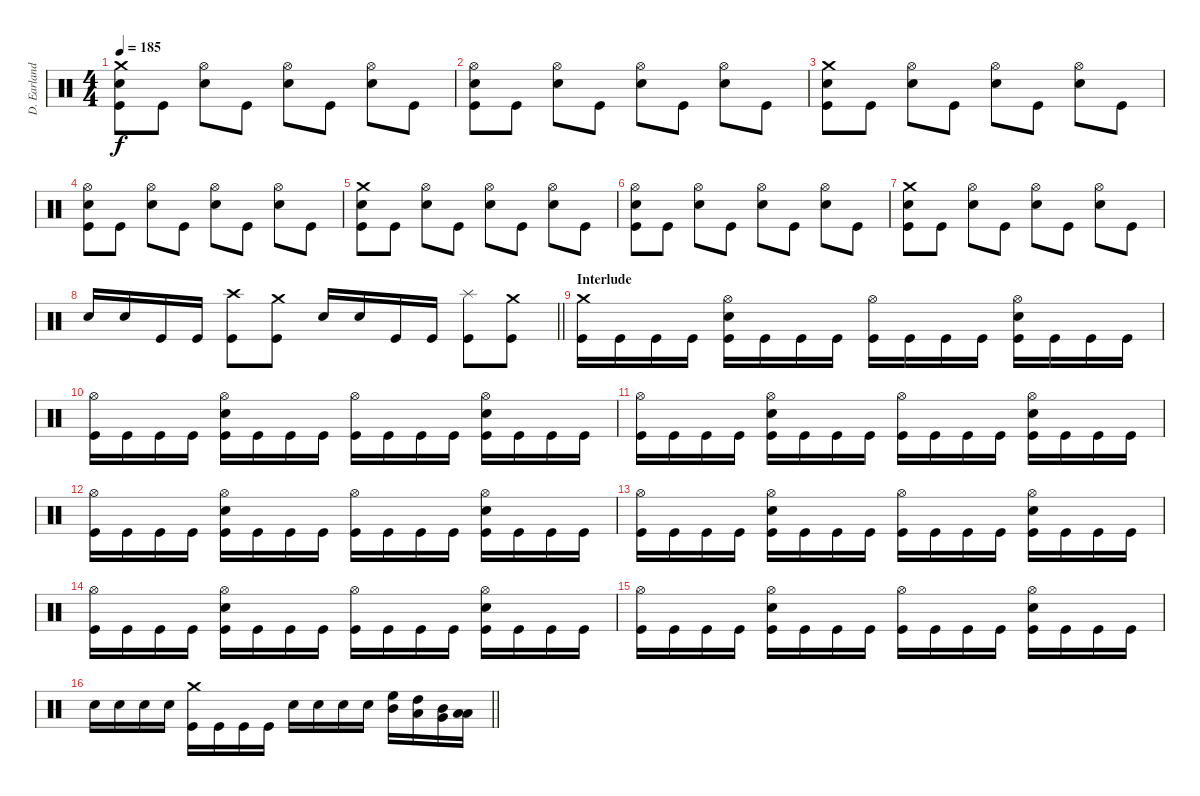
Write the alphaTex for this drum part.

\track ("D. Earlanddson" "D. Earland") {instrument percussion}
\staff {score}
\articulation defaults
\ts (4 4)
\tempo 185
\clef neutral
\ks c
("Crash medium (hit)" "Electric Snare (hit)" "Kick (hit)").8{dy f} "Kick (hit)".8 ("Hi-Hat (open)" "Electric Snare (hit)").8 "Kick (hit)".8 ("Hi-Hat (open)" "Electric Snare (hit)").8 "Kick (hit)".8 ("Hi-Hat (open)" "Electric Snare (hit)").8 "Kick (hit)".8 |
("Hi-Hat (open)" "Electric Snare (hit)" "Kick (hit)").8 "Kick (hit)".8 ("Hi-Hat (open)" "Electric Snare (hit)").8 "Kick (hit)".8 ("Hi-Hat (open)" "Electric Snare (hit)").8 "Kick (hit)".8 ("Hi-Hat (open)" "Electric Snare (hit)").8 "Kick (hit)".8 |
("Crash medium (hit)" "Electric Snare (hit)" "Kick (hit)").8 "Kick (hit)".8 ("Hi-Hat (open)" "Electric Snare (hit)").8 "Kick (hit)".8 ("Hi-Hat (open)" "Electric Snare (hit)").8 "Kick (hit)".8 ("Hi-Hat (open)" "Electric Snare (hit)").8 "Kick (hit)".8 |
("Hi-Hat (open)" "Electric Snare (hit)" "Kick (hit)").8 "Kick (hit)".8 ("Hi-Hat (open)" "Electric Snare (hit)").8 "Kick (hit)".8 ("Hi-Hat (open)" "Electric Snare (hit)").8 "Kick (hit)".8 ("Hi-Hat (open)" "Electric Snare (hit)").8 "Kick (hit)".8 |
("Crash medium (hit)" "Electric Snare (hit)" "Kick (hit)").8 "Kick (hit)".8 ("Hi-Hat (open)" "Electric Snare (hit)").8 "Kick (hit)".8 ("Hi-Hat (open)" "Electric Snare (hit)").8 "Kick (hit)".8 ("Hi-Hat (open)" "Electric Snare (hit)").8 "Kick (hit)".8 |
("Hi-Hat (open)" "Electric Snare (hit)" "Kick (hit)").8 "Kick (hit)".8 ("Hi-Hat (open)" "Electric Snare (hit)").8 "Kick (hit)".8 ("Hi-Hat (open)" "Electric Snare (hit)").8 "Kick (hit)".8 ("Hi-Hat (open)" "Electric Snare (hit)").8 "Kick (hit)".8 |
("Crash medium (hit)" "Electric Snare (hit)" "Kick (hit)").8 "Kick (hit)".8 ("Hi-Hat (open)" "Electric Snare (hit)").8 "Kick (hit)".8 ("Hi-Hat (open)" "Electric Snare (hit)").8 "Kick (hit)".8 ("Hi-Hat (open)" "Electric Snare (hit)").8 "Kick (hit)".8 |
\barLineRight lightlight "Electric Snare (hit)".16 "Electric Snare (hit)".16 "Kick (hit)".16 "Kick (hit)".16
("Crash high (hit)" "Kick (hit)").8 ("Crash medium (hit)" "Kick (hit)").8 "Electric Snare (hit)".16 "Electric Snare (hit)".16 "Kick (hit)".16 "Kick (hit)".16 ("Splash (hit)" "Kick (hit)").8 ("Crash medium (hit)" "Kick (hit)").8 |
\section ("" "Interlude")
("Crash medium (hit)" "Kick (hit)").16 "Kick (hit)".16 "Kick (hit)".16 "Kick (hit)".16 ("Hi-Hat (open)" "Electric Snare (hit)" "Kick (hit)").16 "Kick (hit)".16 "Kick (hit)".16 "Kick (hit)".16 ("Hi-Hat (open)" "Kick (hit)").16 "Kick (hit)".16 "Kick (hit)".16 "Kick (hit)".16 ("Hi-Hat (open)" "Electric Snare (hit)" "Kick (hit)").16 "Kick (hit)".16 "Kick (hit)".16 "Kick (hit)".16 |
("Hi-Hat (open)" "Kick (hit)").16 "Kick (hit)".16 "Kick (hit)".16 "Kick (hit)".16 ("Hi-Hat (open)" "Electric Snare (hit)" "Kick (hit)").16 "Kick (hit)".16 "Kick (hit)".16 "Kick (hit)".16 ("Hi-Hat (open)" "Kick (hit)").16 "Kick (hit)".16 "Kick (hit)".16 "Kick (hit)".16 ("Hi-Hat (open)" "Electric Snare (hit)" "Kick (hit)").16 "Kick (hit)".16 "Kick (hit)".16 "Kick (hit)".16 |
("Hi-Hat (open)" "Kick (hit)").16 "Kick (hit)".16 "Kick (hit)".16 "Kick (hit)".16 ("Hi-Hat (open)" "Electric Snare (hit)" "Kick (hit)").16 "Kick (hit)".16 "Kick (hit)".16 "Kick (hit)".16 ("Hi-Hat (open)" "Kick (hit)").16 "Kick (hit)".16 "Kick (hit)".16 "Kick (hit)".16 ("Hi-Hat (open)" "Electric Snare (hit)" "Kick (hit)").16 "Kick (hit)".16 "Kick (hit)".16 "Kick (hit)".16 |
("Hi-Hat (open)" "Kick (hit)").16 "Kick (hit)".16 "Kick (hit)".16 "Kick (hit)".16 ("Hi-Hat (open)" "Electric Snare (hit)" "Kick (hit)").16 "Kick (hit)".16 "Kick (hit)".16 "Kick (hit)".16 ("Hi-Hat (open)" "Kick (hit)").16 "Kick (hit)".16 "Kick (hit)".16 "Kick (hit)".16 ("Hi-Hat (open)" "Electric Snare (hit)" "Kick (hit)").16 "Kick (hit)".16 "Kick (hit)".16 "Kick (hit)".16 |
("Hi-Hat (open)" "Kick (hit)").16 "Kick (hit)".16 "Kick (hit)".16 "Kick (hit)".16 ("Hi-Hat (open)" "Electric Snare (hit)" "Kick (hit)").16 "Kick (hit)".16 "Kick (hit)".16 "Kick (hit)".16 ("Hi-Hat (open)" "Kick (hit)").16 "Kick (hit)".16 "Kick (hit)".16 "Kick (hit)".16 ("Hi-Hat (open)" "Electric Snare (hit)" "Kick (hit)").16 "Kick (hit)".16 "Kick (hit)".16 "Kick (hit)".16 |
("Hi-Hat (open)" "Kick (hit)").16 "Kick (hit)".16 "Kick (hit)".16 "Kick (hit)".16 ("Hi-Hat (open)" "Electric Snare (hit)" "Kick (hit)").16 "Kick (hit)".16 "Kick (hit)".16 "Kick (hit)".16 ("Hi-Hat (open)" "Kick (hit)").16 "Kick (hit)".16 "Kick (hit)".16 "Kick (hit)".16 ("Hi-Hat (open)" "Electric Snare (hit)" "Kick (hit)").16 "Kick (hit)".16 "Kick (hit)".16 "Kick (hit)".16 |
("Hi-Hat (open)" "Kick (hit)").16 "Kick (hit)".16 "Kick (hit)".16 "Kick (hit)".16 ("Hi-Hat (open)" "Electric Snare (hit)" "Kick (hit)").16 "Kick (hit)".16 "Kick (hit)".16 "Kick (hit)".16 ("Hi-Hat (open)" "Kick (hit)").16 "Kick (hit)".16 "Kick (hit)".16 "Kick (hit)".16 ("Hi-Hat (open)" "Electric Snare (hit)" "Kick (hit)").16 "Kick (hit)".16 "Kick (hit)".16 "Kick (hit)".16 |
\barLineRight lightlight "Electric Snare (hit)".16 "Electric Snare (hit)".16 "Electric Snare (hit)".16 "Electric Snare (hit)".16
("Crash medium (hit)" "Kick (hit)").16 "Kick (hit)".16 "Kick (hit)".16 "Kick (hit)".16 "Electric Snare (hit)".16 "Electric Snare (hit)".16 "Electric Snare (hit)".16 "Electric Snare (hit)".16 ("High Floor Tom (hit)" "Mid Tom (hit)").16 ("High Tom (hit)" "Low Tom (hit)").16 ("Mid Tom (hit)" "Very Low Tom (hit)").16 ("Low Tom (hit)" "Low Floor Tom (hit)").16
